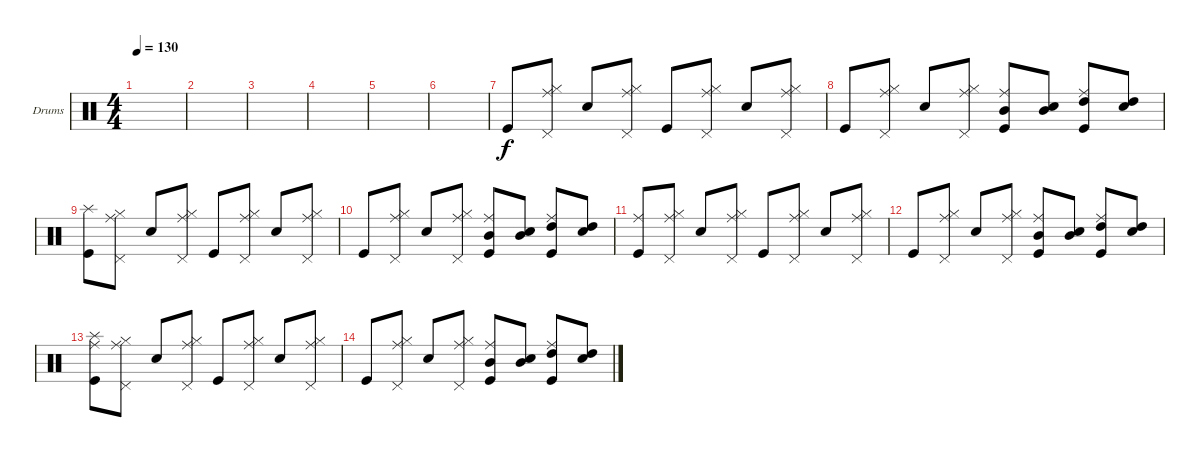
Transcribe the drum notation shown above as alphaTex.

\defaultSystemsLayout 4
\bracketExtendMode groupsimilarinstruments
\firstSystemTrackNameOrientation horizontal
\otherSystemsTrackNameOrientation horizontal
\track ("Drumkit" "Drums") {instrument percussion}
\staff {score}
\articulation defaults
\ts (4 4)
\tempo 130
\clef neutral
\scale
0.333333
\ks c
|
|
|
|
|
|
"Kick (hit)".8 ("Ride (middle)" "Hi-Hat (closed)" "Pedal Hi-Hat (hit)").8 "Snare (hit) 2".8 ("Ride (middle)" "Hi-Hat (closed)" "Pedal Hi-Hat (hit)").8 "Kick (hit)".8 ("Ride (middle)" "Hi-Hat (closed)" "Pedal Hi-Hat (hit)").8 "Snare (hit) 2".8 ("Ride (middle)" "Hi-Hat (closed)" "Pedal Hi-Hat (hit)").8 |
"Kick (hit)".8 ("Ride (middle)" "Hi-Hat (closed)" "Pedal Hi-Hat (hit)").8 "Snare (hit) 2".8 ("Ride (middle)" "Hi-Hat (closed)" "Pedal Hi-Hat (hit)").8 ("Mid Tom (hit)" "Kick (hit)" "Ride (middle)").8 ("Mid Tom (hit)" "Snare (hit) 2").8 ("High Tom (hit)" "Kick (hit)" "Ride (middle)").8 ("High Tom (hit)" "Snare (hit) 2").8 |
("Kick (hit)" "Splash (hit)").8 ("Ride (middle)" "Hi-Hat (closed)" "Pedal Hi-Hat (hit)").8 "Snare (hit) 2".8 ("Ride (middle)" "Hi-Hat (closed)" "Pedal Hi-Hat (hit)").8 "Kick (hit)".8 ("Ride (middle)" "Hi-Hat (closed)" "Pedal Hi-Hat (hit)").8 "Snare (hit) 2".8 ("Ride (middle)" "Hi-Hat (closed)" "Pedal Hi-Hat (hit)").8 |
"Kick (hit)".8 ("Ride (middle)" "Hi-Hat (closed)" "Pedal Hi-Hat (hit)").8 "Snare (hit) 2".8 ("Ride (middle)" "Hi-Hat (closed)" "Pedal Hi-Hat (hit)").8 ("Mid Tom (hit)" "Kick (hit)" "Ride (middle)").8 ("Mid Tom (hit)" "Snare (hit) 2").8 ("High Tom (hit)" "Kick (hit)" "Ride (middle)").8 ("High Tom (hit)" "Snare (hit) 2").8 |
("Kick (hit)" "Ride (middle)").8 ("Ride (middle)" "Hi-Hat (closed)" "Pedal Hi-Hat (hit)").8 "Snare (hit) 2".8 ("Ride (middle)" "Hi-Hat (closed)" "Pedal Hi-Hat (hit)").8 "Kick (hit)".8 ("Ride (middle)" "Hi-Hat (closed)" "Pedal Hi-Hat (hit)").8 "Snare (hit) 2".8 ("Ride (middle)" "Hi-Hat (closed)" "Pedal Hi-Hat (hit)").8 |
"Kick (hit)".8 ("Ride (middle)" "Hi-Hat (closed)" "Pedal Hi-Hat (hit)").8 "Snare (hit) 2".8 ("Ride (middle)" "Hi-Hat (closed)" "Pedal Hi-Hat (hit)").8 ("Mid Tom (hit)" "Kick (hit)" "Ride (middle)").8 ("Mid Tom (hit)" "Snare (hit) 2").8 ("High Tom (hit)" "Kick (hit)" "Ride (middle)").8 ("High Tom (hit)" "Snare (hit) 2").8 |
("Kick (hit)" "Ride (middle)" "Splash (hit)").8 ("Ride (middle)" "Hi-Hat (closed)" "Pedal Hi-Hat (hit)").8 "Snare (hit) 2".8 ("Ride (middle)" "Hi-Hat (closed)" "Pedal Hi-Hat (hit)").8 "Kick (hit)".8 ("Ride (middle)" "Hi-Hat (closed)" "Pedal Hi-Hat (hit)").8 "Snare (hit) 2".8 ("Ride (middle)" "Hi-Hat (closed)" "Pedal Hi-Hat (hit)").8 |
"Kick (hit)".8 ("Ride (middle)" "Hi-Hat (closed)" "Pedal Hi-Hat (hit)").8 "Snare (hit) 2".8 ("Ride (middle)" "Hi-Hat (closed)" "Pedal Hi-Hat (hit)").8 ("Mid Tom (hit)" "Kick (hit)" "Ride (middle)").8 ("Mid Tom (hit)" "Snare (hit) 2").8 ("High Tom (hit)" "Kick (hit)" "Ride (middle)").8 ("High Tom (hit)" "Snare (hit) 2").8
